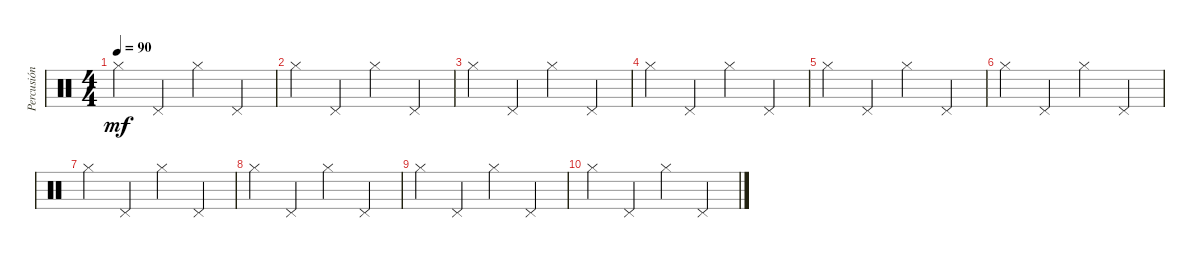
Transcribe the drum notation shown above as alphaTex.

\track ("Percusión" "Percusión") {instrument percussion}
\staff {score}
\articulation defaults
\ts (4 4)
\tempo 90
\clef neutral
\ks c "Hi-Hat (closed)".4{dy mf} "Pedal Hi-Hat (hit)".4 "Hi-Hat (closed)".4 "Pedal Hi-Hat (hit)".4
|
"Hi-Hat (closed)".4 "Pedal Hi-Hat (hit)".4 "Hi-Hat (closed)".4 "Pedal Hi-Hat (hit)".4 |
"Hi-Hat (closed)".4 "Pedal Hi-Hat (hit)".4 "Hi-Hat (closed)".4 "Pedal Hi-Hat (hit)".4 |
"Hi-Hat (closed)".4 "Pedal Hi-Hat (hit)".4 "Hi-Hat (closed)".4 "Pedal Hi-Hat (hit)".4 |
"Hi-Hat (closed)".4 "Pedal Hi-Hat (hit)".4 "Hi-Hat (closed)".4 "Pedal Hi-Hat (hit)".4 |
"Hi-Hat (closed)".4 "Pedal Hi-Hat (hit)".4 "Hi-Hat (closed)".4 "Pedal Hi-Hat (hit)".4 |
"Hi-Hat (closed)".4 "Pedal Hi-Hat (hit)".4 "Hi-Hat (closed)".4 "Pedal Hi-Hat (hit)".4 |
"Hi-Hat (closed)".4 "Pedal Hi-Hat (hit)".4 "Hi-Hat (closed)".4 "Pedal Hi-Hat (hit)".4 |
"Hi-Hat (closed)".4 "Pedal Hi-Hat (hit)".4 "Hi-Hat (closed)".4 "Pedal Hi-Hat (hit)".4 |
"Hi-Hat (closed)".4 "Pedal Hi-Hat (hit)".4 "Hi-Hat (closed)".4 "Pedal Hi-Hat (hit)".4
